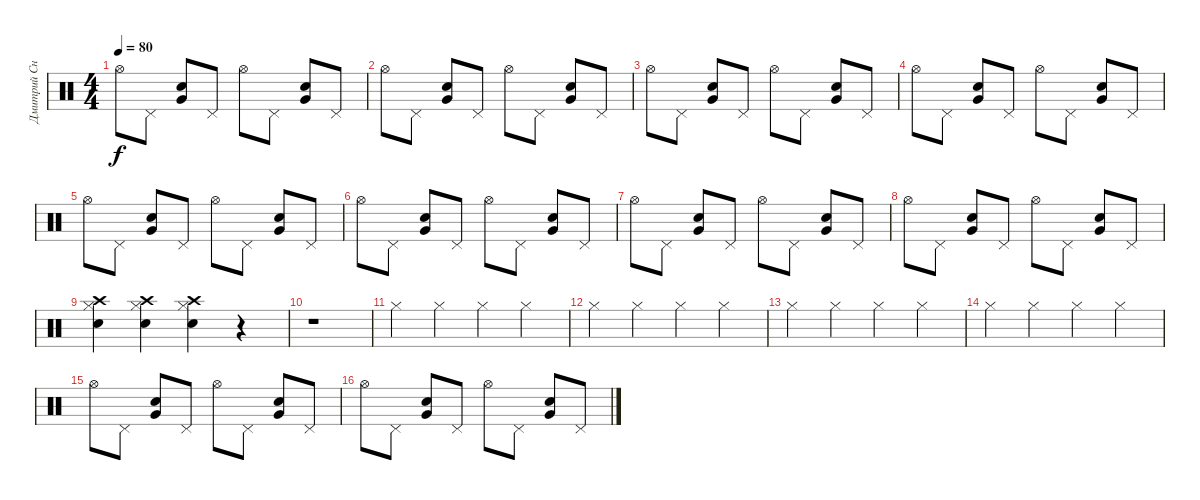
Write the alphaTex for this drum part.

\track ("Дмитрий Снэйк" "Дмитрий Сн") {instrument percussion}
\staff {score}
\articulation defaults
\ts (4 4)
\tempo 80
\clef neutral
\ks c "Hi-Hat (open)".8{dy f} "Pedal Hi-Hat (hit)".8
("Snare (hit) 2" "Very Low Tom (hit)").8 "Pedal Hi-Hat (hit)".8 "Hi-Hat (open)".8 "Pedal Hi-Hat (hit)".8 ("Snare (hit) 2" "Very Low Tom (hit)").8 "Pedal Hi-Hat (hit)".8 |
"Hi-Hat (open)".8 "Pedal Hi-Hat (hit)".8 ("Snare (hit) 2" "Very Low Tom (hit)").8 "Pedal Hi-Hat (hit)".8 "Hi-Hat (open)".8 "Pedal Hi-Hat (hit)".8 ("Snare (hit) 2" "Very Low Tom (hit)").8 "Pedal Hi-Hat (hit)".8 |
"Hi-Hat (open)".8 "Pedal Hi-Hat (hit)".8 ("Snare (hit) 2" "Very Low Tom (hit)").8 "Pedal Hi-Hat (hit)".8 "Hi-Hat (open)".8 "Pedal Hi-Hat (hit)".8 ("Snare (hit) 2" "Very Low Tom (hit)").8 "Pedal Hi-Hat (hit)".8 |
"Hi-Hat (open)".8 "Pedal Hi-Hat (hit)".8 ("Snare (hit) 2" "Very Low Tom (hit)").8 "Pedal Hi-Hat (hit)".8 "Hi-Hat (open)".8 "Pedal Hi-Hat (hit)".8 ("Snare (hit) 2" "Very Low Tom (hit)").8 "Pedal Hi-Hat (hit)".8 |
"Hi-Hat (open)".8 "Pedal Hi-Hat (hit)".8 ("Snare (hit) 2" "Very Low Tom (hit)").8 "Pedal Hi-Hat (hit)".8 "Hi-Hat (open)".8 "Pedal Hi-Hat (hit)".8 ("Snare (hit) 2" "Very Low Tom (hit)").8 "Pedal Hi-Hat (hit)".8 |
"Hi-Hat (open)".8 "Pedal Hi-Hat (hit)".8 ("Snare (hit) 2" "Very Low Tom (hit)").8 "Pedal Hi-Hat (hit)".8 "Hi-Hat (open)".8 "Pedal Hi-Hat (hit)".8 ("Snare (hit) 2" "Very Low Tom (hit)").8 "Pedal Hi-Hat (hit)".8 |
"Hi-Hat (open)".8 "Pedal Hi-Hat (hit)".8 ("Snare (hit) 2" "Very Low Tom (hit)").8 "Pedal Hi-Hat (hit)".8 "Hi-Hat (open)".8 "Pedal Hi-Hat (hit)".8 ("Snare (hit) 2" "Very Low Tom (hit)").8 "Pedal Hi-Hat (hit)".8 |
"Hi-Hat (open)".8 "Pedal Hi-Hat (hit)".8 ("Snare (hit) 2" "Very Low Tom (hit)").8 "Pedal Hi-Hat (hit)".8 "Hi-Hat (open)".8 "Pedal Hi-Hat (hit)".8 ("Snare (hit) 2" "Very Low Tom (hit)").8 "Pedal Hi-Hat (hit)".8 |
("Hi-Hat (closed)" "Snare (hit) 2" "Crash high (hit)").4 ("Hi-Hat (closed)" "Snare (hit) 2" "Crash high (hit)").4 ("Hi-Hat (closed)" "Snare (hit) 2" "Crash high (hit)").4 r.4 |
r.1 |
"Hi-Hat (closed)".4 "Hi-Hat (closed)".4 "Hi-Hat (closed)".4 "Hi-Hat (closed)".4 |
"Hi-Hat (closed)".4 "Hi-Hat (closed)".4 "Hi-Hat (closed)".4 "Hi-Hat (closed)".4 |
"Hi-Hat (closed)".4 "Hi-Hat (closed)".4 "Hi-Hat (closed)".4 "Hi-Hat (closed)".4 |
"Hi-Hat (closed)".4 "Hi-Hat (closed)".4 "Hi-Hat (closed)".4 "Hi-Hat (closed)".4 |
"Hi-Hat (open)".8 "Pedal Hi-Hat (hit)".8 ("Snare (hit) 2" "Very Low Tom (hit)").8 "Pedal Hi-Hat (hit)".8 "Hi-Hat (open)".8 "Pedal Hi-Hat (hit)".8 ("Snare (hit) 2" "Very Low Tom (hit)").8 "Pedal Hi-Hat (hit)".8 |
"Hi-Hat (open)".8 "Pedal Hi-Hat (hit)".8 ("Snare (hit) 2" "Very Low Tom (hit)").8 "Pedal Hi-Hat (hit)".8 "Hi-Hat (open)".8 "Pedal Hi-Hat (hit)".8 ("Snare (hit) 2" "Very Low Tom (hit)").8 "Pedal Hi-Hat (hit)".8
